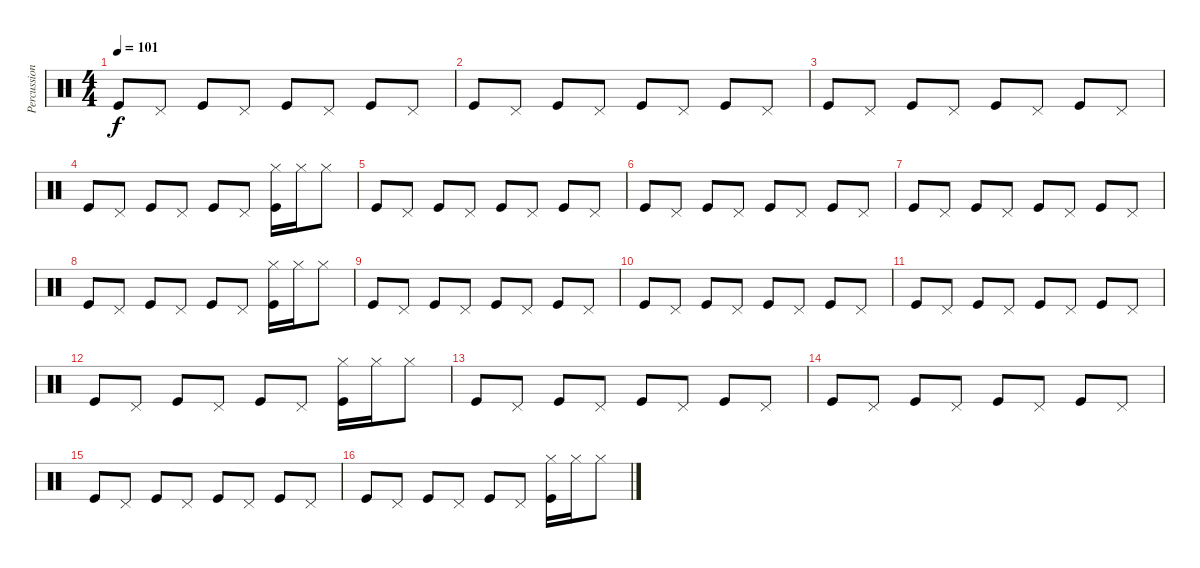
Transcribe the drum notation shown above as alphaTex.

\track ("Percussion" "Percussion") {instrument percussion}
\staff {score}
\articulation defaults
\ts (4 4)
\tempo 101
\clef neutral
\ks c "Kick (hit)".8{dy f} "Pedal Hi-Hat (hit)".8 "Kick (hit)".8 "Pedal Hi-Hat (hit)".8 "Kick (hit)".8 "Pedal Hi-Hat (hit)".8 "Kick (hit)".8 "Pedal Hi-Hat (hit)".8
|
"Kick (hit)".8 "Pedal Hi-Hat (hit)".8 "Kick (hit)".8 "Pedal Hi-Hat (hit)".8 "Kick (hit)".8 "Pedal Hi-Hat (hit)".8 "Kick (hit)".8 "Pedal Hi-Hat (hit)".8 |
"Kick (hit)".8 "Pedal Hi-Hat (hit)".8 "Kick (hit)".8 "Pedal Hi-Hat (hit)".8 "Kick (hit)".8 "Pedal Hi-Hat (hit)".8 "Kick (hit)".8 "Pedal Hi-Hat (hit)".8 |
"Kick (hit)".8 "Pedal Hi-Hat (hit)".8 "Kick (hit)".8 "Pedal Hi-Hat (hit)".8 "Kick (hit)".8 "Pedal Hi-Hat (hit)".8 ("Kick (hit)" "Hi-Hat (closed)").16 "Hi-Hat (closed)".16 "Hi-Hat (closed)".8 |
"Kick (hit)".8 "Pedal Hi-Hat (hit)".8 "Kick (hit)".8 "Pedal Hi-Hat (hit)".8 "Kick (hit)".8 "Pedal Hi-Hat (hit)".8 "Kick (hit)".8 "Pedal Hi-Hat (hit)".8 |
"Kick (hit)".8 "Pedal Hi-Hat (hit)".8 "Kick (hit)".8 "Pedal Hi-Hat (hit)".8 "Kick (hit)".8 "Pedal Hi-Hat (hit)".8 "Kick (hit)".8 "Pedal Hi-Hat (hit)".8 |
"Kick (hit)".8 "Pedal Hi-Hat (hit)".8 "Kick (hit)".8 "Pedal Hi-Hat (hit)".8 "Kick (hit)".8 "Pedal Hi-Hat (hit)".8 "Kick (hit)".8 "Pedal Hi-Hat (hit)".8 |
"Kick (hit)".8 "Pedal Hi-Hat (hit)".8 "Kick (hit)".8 "Pedal Hi-Hat (hit)".8 "Kick (hit)".8 "Pedal Hi-Hat (hit)".8 ("Kick (hit)" "Hi-Hat (closed)").16 "Hi-Hat (closed)".16 "Hi-Hat (closed)".8 |
"Kick (hit)".8 "Pedal Hi-Hat (hit)".8 "Kick (hit)".8 "Pedal Hi-Hat (hit)".8 "Kick (hit)".8 "Pedal Hi-Hat (hit)".8 "Kick (hit)".8 "Pedal Hi-Hat (hit)".8 |
"Kick (hit)".8 "Pedal Hi-Hat (hit)".8 "Kick (hit)".8 "Pedal Hi-Hat (hit)".8 "Kick (hit)".8 "Pedal Hi-Hat (hit)".8 "Kick (hit)".8 "Pedal Hi-Hat (hit)".8 |
"Kick (hit)".8 "Pedal Hi-Hat (hit)".8 "Kick (hit)".8 "Pedal Hi-Hat (hit)".8 "Kick (hit)".8 "Pedal Hi-Hat (hit)".8 "Kick (hit)".8 "Pedal Hi-Hat (hit)".8 |
"Kick (hit)".8 "Pedal Hi-Hat (hit)".8 "Kick (hit)".8 "Pedal Hi-Hat (hit)".8 "Kick (hit)".8 "Pedal Hi-Hat (hit)".8 ("Kick (hit)" "Hi-Hat (closed)").16 "Hi-Hat (closed)".16 "Hi-Hat (closed)".8 |
"Kick (hit)".8 "Pedal Hi-Hat (hit)".8 "Kick (hit)".8 "Pedal Hi-Hat (hit)".8 "Kick (hit)".8 "Pedal Hi-Hat (hit)".8 "Kick (hit)".8 "Pedal Hi-Hat (hit)".8 |
"Kick (hit)".8 "Pedal Hi-Hat (hit)".8 "Kick (hit)".8 "Pedal Hi-Hat (hit)".8 "Kick (hit)".8 "Pedal Hi-Hat (hit)".8 "Kick (hit)".8 "Pedal Hi-Hat (hit)".8 |
"Kick (hit)".8 "Pedal Hi-Hat (hit)".8 "Kick (hit)".8 "Pedal Hi-Hat (hit)".8 "Kick (hit)".8 "Pedal Hi-Hat (hit)".8 "Kick (hit)".8 "Pedal Hi-Hat (hit)".8 |
"Kick (hit)".8 "Pedal Hi-Hat (hit)".8 "Kick (hit)".8 "Pedal Hi-Hat (hit)".8 "Kick (hit)".8 "Pedal Hi-Hat (hit)".8 ("Kick (hit)" "Hi-Hat (closed)").16 "Hi-Hat (closed)".16 "Hi-Hat (closed)".8
